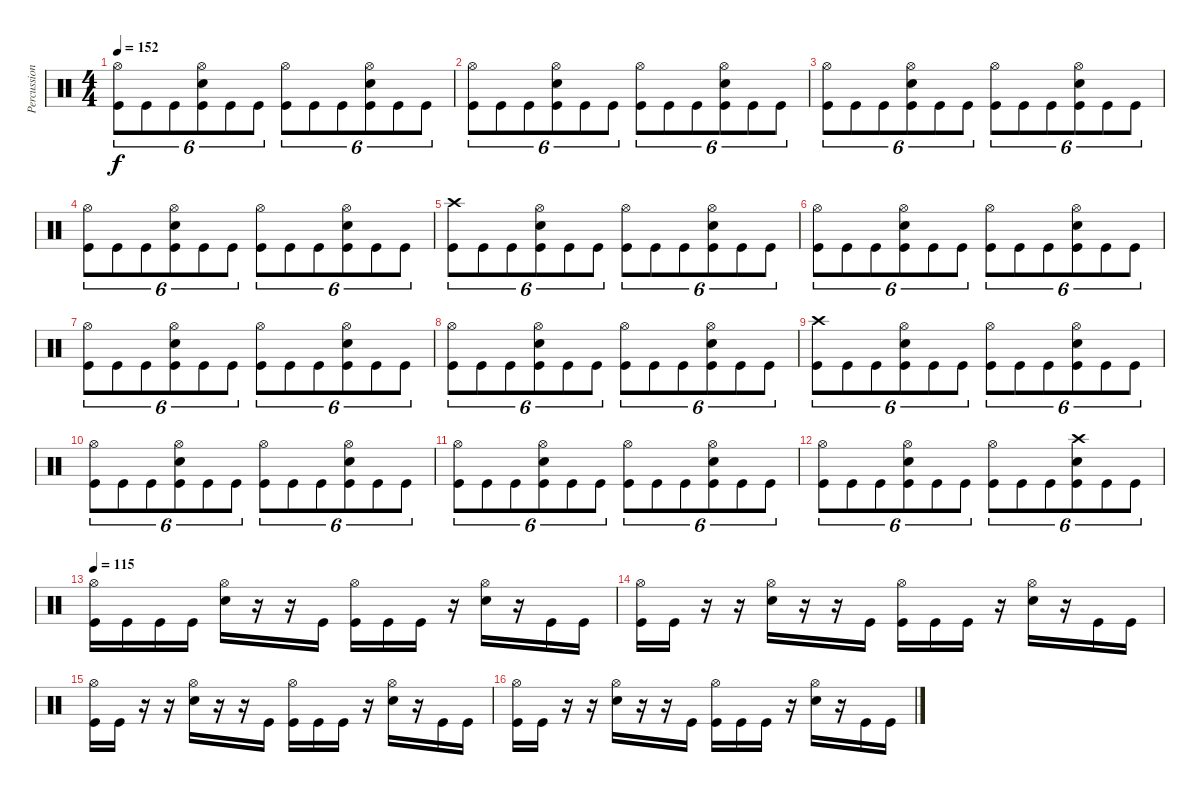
\track ("Percussion" "Percussion") {instrument percussion}
\staff {score}
\articulation defaults
\ts (4 4)
\tempo 152
\clef neutral
\ks c
("Hi-Hat (open)" "Kick (hit)").8{tu (6 4) dy f} "Kick (hit)".8{tu (6 4)} "Kick (hit)".8{tu (6 4)} ("Hi-Hat (open)" "Snare (hit) 2" "Kick (hit)").8{tu (6 4)} "Kick (hit)".8{tu (6 4)} "Kick (hit)".8{tu (6 4)} ("Hi-Hat (open)" "Kick (hit)").8{tu (6 4)} "Kick (hit)".8{tu (6 4)} "Kick (hit)".8{tu (6 4)} ("Hi-Hat (open)" "Snare (hit) 2" "Kick (hit)").8{tu (6 4)} "Kick (hit)".8{tu (6 4)} "Kick (hit)".8{tu (6 4)} |
("Hi-Hat (open)" "Kick (hit)").8{tu (6 4)} "Kick (hit)".8{tu (6 4)} "Kick (hit)".8{tu (6 4)} ("Hi-Hat (open)" "Snare (hit) 2" "Kick (hit)").8{tu (6 4)} "Kick (hit)".8{tu (6 4)} "Kick (hit)".8{tu (6 4)} ("Hi-Hat (open)" "Kick (hit)").8{tu (6 4)} "Kick (hit)".8{tu (6 4)} "Kick (hit)".8{tu (6 4)} ("Hi-Hat (open)" "Snare (hit) 2" "Kick (hit)").8{tu (6 4)} "Kick (hit)".8{tu (6 4)} "Kick (hit)".8{tu (6 4)} |
("Hi-Hat (open)" "Kick (hit)").8{tu (6 4)} "Kick (hit)".8{tu (6 4)} "Kick (hit)".8{tu (6 4)} ("Hi-Hat (open)" "Snare (hit) 2" "Kick (hit)").8{tu (6 4)} "Kick (hit)".8{tu (6 4)} "Kick (hit)".8{tu (6 4)} ("Hi-Hat (open)" "Kick (hit)").8{tu (6 4)} "Kick (hit)".8{tu (6 4)} "Kick (hit)".8{tu (6 4)} ("Hi-Hat (open)" "Snare (hit) 2" "Kick (hit)").8{tu (6 4)} "Kick (hit)".8{tu (6 4)} "Kick (hit)".8{tu (6 4)} |
("Hi-Hat (open)" "Kick (hit)").8{tu (6 4)} "Kick (hit)".8{tu (6 4)} "Kick (hit)".8{tu (6 4)} ("Hi-Hat (open)" "Snare (hit) 2" "Kick (hit)").8{tu (6 4)} "Kick (hit)".8{tu (6 4)} "Kick (hit)".8{tu (6 4)} ("Hi-Hat (open)" "Kick (hit)").8{tu (6 4)} "Kick (hit)".8{tu (6 4)} "Kick (hit)".8{tu (6 4)} ("Hi-Hat (open)" "Snare (hit) 2" "Kick (hit)").8{tu (6 4)} "Kick (hit)".8{tu (6 4)} "Kick (hit)".8{tu (6 4)} |
("Crash high (hit)" "Kick (hit)").8{tu (6 4)} "Kick (hit)".8{tu (6 4)} "Kick (hit)".8{tu (6 4)} ("Hi-Hat (open)" "Snare (hit) 2" "Kick (hit)").8{tu (6 4)} "Kick (hit)".8{tu (6 4)} "Kick (hit)".8{tu (6 4)} ("Hi-Hat (open)" "Kick (hit)").8{tu (6 4)} "Kick (hit)".8{tu (6 4)} "Kick (hit)".8{tu (6 4)} ("Hi-Hat (open)" "Snare (hit) 2" "Kick (hit)").8{tu (6 4)} "Kick (hit)".8{tu (6 4)} "Kick (hit)".8{tu (6 4)} |
("Hi-Hat (open)" "Kick (hit)").8{tu (6 4)} "Kick (hit)".8{tu (6 4)} "Kick (hit)".8{tu (6 4)} ("Hi-Hat (open)" "Snare (hit) 2" "Kick (hit)").8{tu (6 4)} "Kick (hit)".8{tu (6 4)} "Kick (hit)".8{tu (6 4)} ("Hi-Hat (open)" "Kick (hit)").8{tu (6 4)} "Kick (hit)".8{tu (6 4)} "Kick (hit)".8{tu (6 4)} ("Hi-Hat (open)" "Snare (hit) 2" "Kick (hit)").8{tu (6 4)} "Kick (hit)".8{tu (6 4)} "Kick (hit)".8{tu (6 4)} |
("Hi-Hat (open)" "Kick (hit)").8{tu (6 4)} "Kick (hit)".8{tu (6 4)} "Kick (hit)".8{tu (6 4)} ("Hi-Hat (open)" "Snare (hit) 2" "Kick (hit)").8{tu (6 4)} "Kick (hit)".8{tu (6 4)} "Kick (hit)".8{tu (6 4)} ("Hi-Hat (open)" "Kick (hit)").8{tu (6 4)} "Kick (hit)".8{tu (6 4)} "Kick (hit)".8{tu (6 4)} ("Hi-Hat (open)" "Snare (hit) 2" "Kick (hit)").8{tu (6 4)} "Kick (hit)".8{tu (6 4)} "Kick (hit)".8{tu (6 4)} |
("Hi-Hat (open)" "Kick (hit)").8{tu (6 4)} "Kick (hit)".8{tu (6 4)} "Kick (hit)".8{tu (6 4)} ("Hi-Hat (open)" "Snare (hit) 2" "Kick (hit)").8{tu (6 4)} "Kick (hit)".8{tu (6 4)} "Kick (hit)".8{tu (6 4)} ("Hi-Hat (open)" "Kick (hit)").8{tu (6 4)} "Kick (hit)".8{tu (6 4)} "Kick (hit)".8{tu (6 4)} ("Hi-Hat (open)" "Snare (hit) 2" "Kick (hit)").8{tu (6 4)} "Kick (hit)".8{tu (6 4)} "Kick (hit)".8{tu (6 4)} |
("Crash high (hit)" "Kick (hit)").8{tu (6 4)} "Kick (hit)".8{tu (6 4)} "Kick (hit)".8{tu (6 4)} ("Hi-Hat (open)" "Snare (hit) 2" "Kick (hit)").8{tu (6 4)} "Kick (hit)".8{tu (6 4)} "Kick (hit)".8{tu (6 4)} ("Hi-Hat (open)" "Kick (hit)").8{tu (6 4)} "Kick (hit)".8{tu (6 4)} "Kick (hit)".8{tu (6 4)} ("Hi-Hat (open)" "Snare (hit) 2" "Kick (hit)").8{tu (6 4)} "Kick (hit)".8{tu (6 4)} "Kick (hit)".8{tu (6 4)} |
("Hi-Hat (open)" "Kick (hit)").8{tu (6 4)} "Kick (hit)".8{tu (6 4)} "Kick (hit)".8{tu (6 4)} ("Hi-Hat (open)" "Snare (hit) 2" "Kick (hit)").8{tu (6 4)} "Kick (hit)".8{tu (6 4)} "Kick (hit)".8{tu (6 4)} ("Hi-Hat (open)" "Kick (hit)").8{tu (6 4)} "Kick (hit)".8{tu (6 4)} "Kick (hit)".8{tu (6 4)} ("Hi-Hat (open)" "Snare (hit) 2" "Kick (hit)").8{tu (6 4)} "Kick (hit)".8{tu (6 4)} "Kick (hit)".8{tu (6 4)} |
("Hi-Hat (open)" "Kick (hit)").8{tu (6 4)} "Kick (hit)".8{tu (6 4)} "Kick (hit)".8{tu (6 4)} ("Hi-Hat (open)" "Snare (hit) 2" "Kick (hit)").8{tu (6 4)} "Kick (hit)".8{tu (6 4)} "Kick (hit)".8{tu (6 4)} ("Hi-Hat (open)" "Kick (hit)").8{tu (6 4)} "Kick (hit)".8{tu (6 4)} "Kick (hit)".8{tu (6 4)} ("Hi-Hat (open)" "Snare (hit) 2" "Kick (hit)").8{tu (6 4)} "Kick (hit)".8{tu (6 4)} "Kick (hit)".8{tu (6 4)} |
("Hi-Hat (open)" "Kick (hit)").8{tu (6 4)} "Kick (hit)".8{tu (6 4)} "Kick (hit)".8{tu (6 4)} ("Hi-Hat (open)" "Snare (hit) 2" "Kick (hit)").8{tu (6 4)} "Kick (hit)".8{tu (6 4)} "Kick (hit)".8{tu (6 4)} ("Hi-Hat (open)" "Kick (hit)").8{tu (6 4)} "Kick (hit)".8{tu (6 4)} "Kick (hit)".8{tu (6 4)} ("Crash high (hit)" "Snare (hit) 2" "Kick (hit)").8{tu (6 4)} "Kick (hit)".8{tu (6 4)} "Kick (hit)".8{tu (6 4)} |
\tempo 115
("Hi-Hat (open)" "Kick (hit)").16 "Kick (hit)".16 "Kick (hit)".16 "Kick (hit)".16 ("Hi-Hat (open)" "Snare (hit) 2").16 r.16 r.16 "Kick (hit)".16 ("Hi-Hat (open)" "Kick (hit)").16 "Kick (hit)".16 "Kick (hit)".16 r.16 ("Hi-Hat (open)" "Snare (hit) 2").16 r.16 "Kick (hit)".16 "Kick (hit)".16 |
("Hi-Hat (open)" "Kick (hit)").16 "Kick (hit)".16 r.16 r.16 ("Hi-Hat (open)" "Snare (hit) 2").16 r.16 r.16 "Kick (hit)".16 ("Hi-Hat (open)" "Kick (hit)").16 "Kick (hit)".16 "Kick (hit)".16 r.16 ("Hi-Hat (open)" "Snare (hit) 2").16 r.16 "Kick (hit)".16 "Kick (hit)".16 |
("Hi-Hat (open)" "Kick (hit)").16 "Kick (hit)".16 r.16 r.16 ("Hi-Hat (open)" "Snare (hit) 2").16 r.16 r.16 "Kick (hit)".16 ("Hi-Hat (open)" "Kick (hit)").16 "Kick (hit)".16 "Kick (hit)".16 r.16 ("Hi-Hat (open)" "Snare (hit) 2").16 r.16 "Kick (hit)".16 "Kick (hit)".16 |
("Hi-Hat (open)" "Kick (hit)").16 "Kick (hit)".16 r.16 r.16 ("Hi-Hat (open)" "Snare (hit) 2").16 r.16 r.16 "Kick (hit)".16 ("Hi-Hat (open)" "Kick (hit)").16 "Kick (hit)".16 "Kick (hit)".16 r.16 ("Hi-Hat (open)" "Snare (hit) 2").16 r.16 "Kick (hit)".16 "Kick (hit)".16
